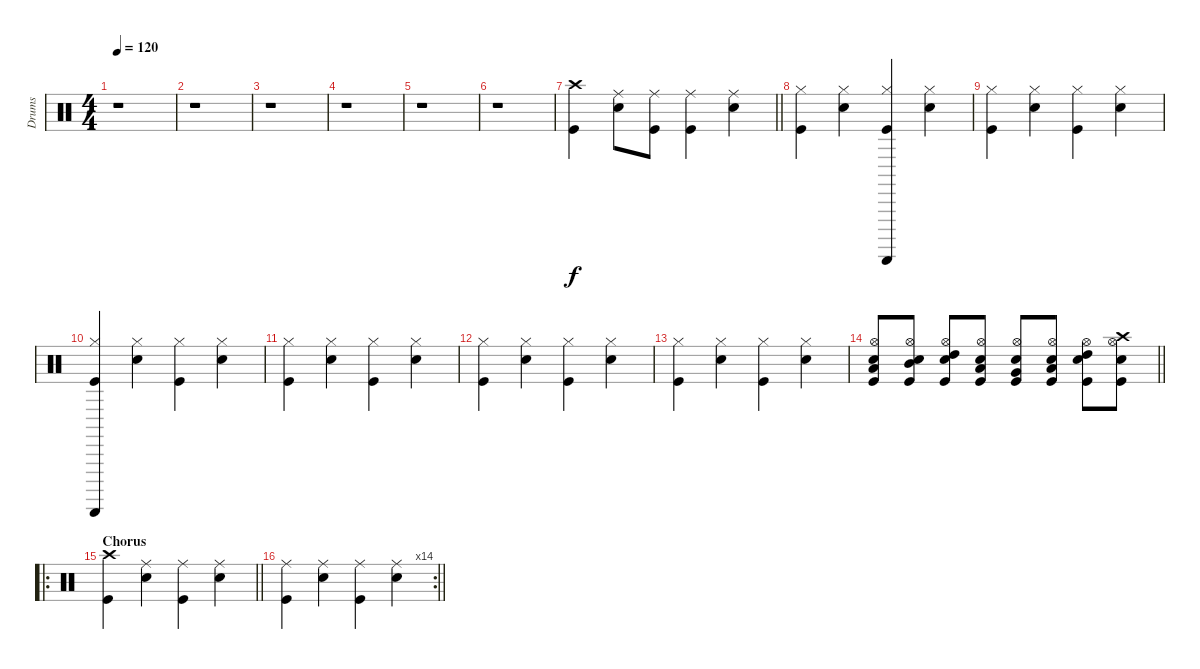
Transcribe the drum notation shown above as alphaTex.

\track ("Drums" "Drums") {instrument percussion}
\staff {score}
\articulation defaults
\ts (4 4)
\tempo 120
\clef neutral
\ks c
r.1{dy f} |
r.1 |
r.1 |
r.1 |
r.1 |
r.1 |
\barLineRight lightlight
("Crash high (hit)" "Kick (hit)").4 ("Ride (middle)" "Electric Snare (hit)").8 ("Ride (middle)" "Kick (hit)").8 ("Ride (middle)" "Kick (hit)").4 ("Ride (middle)" "Electric Snare (hit)").4 |
("Hi-Hat (closed)" "Kick (hit)").4 ("Hi-Hat (closed)" "Electric Snare (hit)").4 ("Guiro (scrap-return)" "Hi-Hat (closed)" "Kick (hit)").4 ("Hi-Hat (closed)" "Electric Snare (hit)").4 |
("Hi-Hat (closed)" "Kick (hit)").4 ("Hi-Hat (closed)" "Electric Snare (hit)").4 ("Hi-Hat (closed)" "Kick (hit)").4 ("Hi-Hat (closed)" "Electric Snare (hit)").4 |
("Guiro (scrap-return)" "Hi-Hat (closed)" "Kick (hit)").4 ("Hi-Hat (closed)" "Electric Snare (hit)").4 ("Hi-Hat (closed)" "Kick (hit)").4 ("Hi-Hat (closed)" "Electric Snare (hit)").4 |
("Hi-Hat (closed)" "Kick (hit)").4 ("Hi-Hat (closed)" "Electric Snare (hit)").4 ("Hi-Hat (closed)" "Kick (hit)").4 ("Hi-Hat (closed)" "Electric Snare (hit)").4 |
("Hi-Hat (closed)" "Kick (hit)").4 ("Hi-Hat (closed)" "Electric Snare (hit)").4 ("Hi-Hat (closed)" "Kick (hit)").4 ("Hi-Hat (closed)" "Electric Snare (hit)").4 |
("Hi-Hat (closed)" "Kick (hit)").4 ("Hi-Hat (closed)" "Electric Snare (hit)").4 ("Hi-Hat (closed)" "Kick (hit)").4 ("Hi-Hat (closed)" "Electric Snare (hit)").4 |
\barLineRight lightlight
("Hi-Hat (open)" "Electric Snare (hit)" "Low Tom (hit)" "Kick (hit)").8 ("Hi-Hat (open)" "Electric Snare (hit)" "Mid Tom (hit)" "Kick (hit)").8 ("Hi-Hat (open)" "Electric Snare (hit)" "High Tom (hit)" "Kick (hit)").8 ("Hi-Hat (open)" "Electric Snare (hit)" "Low Tom (hit)" "Kick (hit)").8 ("Hi-Hat (open)" "Electric Snare (hit)" "Very Low Tom (hit)" "Kick (hit)").8 ("Hi-Hat (open)" "Electric Snare (hit)" "Low Floor Tom (hit)" "Kick (hit)").8 ("Hi-Hat (open)" "Electric Snare (hit)" "High Tom (hit)" "Kick (hit)").8 ("Hi-Hat (open)" "Electric Snare (hit)" "Crash high (hit)" "Kick (hit)").8 |
\ro
\section ("" "Chorus")
\barLineRight lightlight
("Crash high (hit)" "Kick (hit)").4 ("Ride (middle)" "Electric Snare (hit)").4 ("Ride (middle)" "Kick (hit)").4 ("Ride (middle)" "Electric Snare (hit)").4 |
\rc 14
\barLineRight lightlight
("Ride (middle)" "Kick (hit)").4 ("Ride (middle)" "Electric Snare (hit)").4 ("Ride (middle)" "Kick (hit)").4 ("Ride (middle)" "Electric Snare (hit)").4
